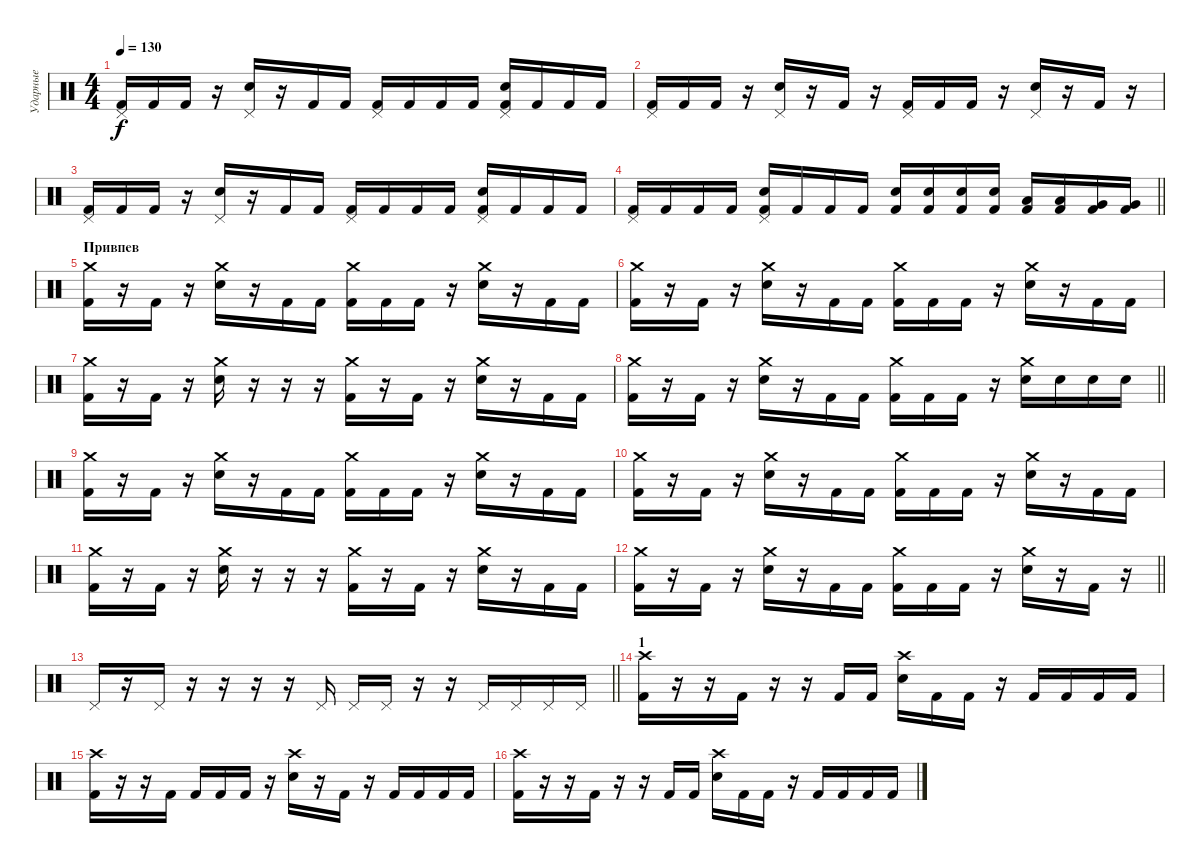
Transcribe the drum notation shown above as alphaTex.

\track ("Ударные" "Ударные") {instrument percussion}
\staff {score}
\articulation defaults
\ts (4 4)
\tempo 130
\clef neutral
\ks c
("Pedal Hi-Hat (hit)" "Kick (hit) 2").16{dy f} "Kick (hit) 2".16 "Kick (hit) 2".16 r.16 ("Pedal Hi-Hat (hit)" "Snare (hit) 2").16 r.16 "Kick (hit) 2".16 "Kick (hit) 2".16 ("Pedal Hi-Hat (hit)" "Kick (hit) 2").16 "Kick (hit) 2".16 "Kick (hit) 2".16 "Kick (hit) 2".16 ("Pedal Hi-Hat (hit)" "Snare (hit) 2" "Kick (hit) 2").16 "Kick (hit) 2".16 "Kick (hit) 2".16 "Kick (hit) 2".16 |
("Pedal Hi-Hat (hit)" "Kick (hit) 2").16 "Kick (hit) 2".16 "Kick (hit) 2".16 r.16 ("Pedal Hi-Hat (hit)" "Snare (hit) 2").16 r.16 "Kick (hit) 2".16 r.16 ("Pedal Hi-Hat (hit)" "Kick (hit) 2").16 "Kick (hit) 2".16 "Kick (hit) 2".16 r.16 ("Pedal Hi-Hat (hit)" "Snare (hit) 2").16 r.16 "Kick (hit) 2".16 r.16 |
("Pedal Hi-Hat (hit)" "Kick (hit) 2").16 "Kick (hit) 2".16 "Kick (hit) 2".16 r.16 ("Pedal Hi-Hat (hit)" "Snare (hit) 2").16 r.16 "Kick (hit) 2".16 "Kick (hit) 2".16 ("Pedal Hi-Hat (hit)" "Kick (hit) 2").16 "Kick (hit) 2".16 "Kick (hit) 2".16 "Kick (hit) 2".16 ("Pedal Hi-Hat (hit)" "Snare (hit) 2" "Kick (hit) 2").16 "Kick (hit) 2".16 "Kick (hit) 2".16 "Kick (hit) 2".16 |
\barLineRight lightlight
("Pedal Hi-Hat (hit)" "Kick (hit) 2").16 "Kick (hit) 2".16 "Kick (hit) 2".16 "Kick (hit) 2".16 ("Pedal Hi-Hat (hit)" "Snare (hit) 2" "Kick (hit) 2").16 "Kick (hit) 2".16 "Kick (hit) 2".16 "Kick (hit) 2".16 ("Snare (hit) 2" "Kick (hit) 2").16 ("Snare (hit) 2" "Kick (hit) 2").16 ("Snare (hit) 2" "Kick (hit) 2").16 ("Snare (hit) 2" "Kick (hit) 2").16 ("Low Floor Tom (hit)" "Kick (hit) 2").16 ("Low Floor Tom (hit)" "Kick (hit) 2").16 ("Very Low Tom (hit)" "Kick (hit) 2").16 ("Very Low Tom (hit)" "Kick (hit) 2").16 |
\section ("" "Привпев")
("Crash medium (hit)" "Kick (hit) 2").16 r.16 "Kick (hit) 2".16 r.16 ("Crash medium (hit)" "Snare (hit) 2").16 r.16 "Kick (hit) 2".16 "Kick (hit) 2".16 ("Crash medium (hit)" "Kick (hit) 2").16 "Kick (hit) 2".16 "Kick (hit) 2".16 r.16 ("Crash medium (hit)" "Snare (hit) 2").16 r.16 "Kick (hit) 2".16 "Kick (hit) 2".16 |
("Crash medium (hit)" "Kick (hit) 2").16 r.16 "Kick (hit) 2".16 r.16 ("Crash medium (hit)" "Snare (hit) 2").16 r.16 "Kick (hit) 2".16 "Kick (hit) 2".16 ("Crash medium (hit)" "Kick (hit) 2").16 "Kick (hit) 2".16 "Kick (hit) 2".16 r.16 ("Crash medium (hit)" "Snare (hit) 2").16 r.16 "Kick (hit) 2".16 "Kick (hit) 2".16 |
("Crash medium (hit)" "Kick (hit) 2").16 r.16 "Kick (hit) 2".16 r.16 ("Crash medium (hit)" "Snare (hit) 2").16 r.16 r.16 r.16 ("Crash medium (hit)" "Kick (hit) 2").16 r.16 "Kick (hit) 2".16 r.16 ("Crash medium (hit)" "Snare (hit) 2").16 r.16 "Kick (hit) 2".16 "Kick (hit) 2".16 |
\barLineRight lightlight
("Crash medium (hit)" "Kick (hit) 2").16 r.16 "Kick (hit) 2".16 r.16 ("Crash medium (hit)" "Snare (hit) 2").16 r.16 "Kick (hit) 2".16 "Kick (hit) 2".16 ("Crash medium (hit)" "Kick (hit) 2").16 "Kick (hit) 2".16 "Kick (hit) 2".16 r.16 ("Crash medium (hit)" "Snare (hit) 2").16 "Snare (hit) 2".16 "Snare (hit) 2".16 "Snare (hit) 2".16 |
("Crash medium (hit)" "Kick (hit) 2").16 r.16 "Kick (hit) 2".16 r.16 ("Crash medium (hit)" "Snare (hit) 2").16 r.16 "Kick (hit) 2".16 "Kick (hit) 2".16 ("Crash medium (hit)" "Kick (hit) 2").16 "Kick (hit) 2".16 "Kick (hit) 2".16 r.16 ("Crash medium (hit)" "Snare (hit) 2").16 r.16 "Kick (hit) 2".16 "Kick (hit) 2".16 |
("Crash medium (hit)" "Kick (hit) 2").16 r.16 "Kick (hit) 2".16 r.16 ("Crash medium (hit)" "Snare (hit) 2").16 r.16 "Kick (hit) 2".16 "Kick (hit) 2".16 ("Crash medium (hit)" "Kick (hit) 2").16 "Kick (hit) 2".16 "Kick (hit) 2".16 r.16 ("Crash medium (hit)" "Snare (hit) 2").16 r.16 "Kick (hit) 2".16 "Kick (hit) 2".16 |
("Crash medium (hit)" "Kick (hit) 2").16 r.16 "Kick (hit) 2".16 r.16 ("Crash medium (hit)" "Snare (hit) 2").16 r.16 r.16 r.16 ("Crash medium (hit)" "Kick (hit) 2").16 r.16 "Kick (hit) 2".16 r.16 ("Crash medium (hit)" "Snare (hit) 2").16 r.16 "Kick (hit) 2".16 "Kick (hit) 2".16 |
\barLineRight lightlight
("Crash medium (hit)" "Kick (hit) 2").16 r.16 "Kick (hit) 2".16 r.16 ("Crash medium (hit)" "Snare (hit) 2").16 r.16 "Kick (hit) 2".16 "Kick (hit) 2".16 ("Crash medium (hit)" "Kick (hit) 2").16 "Kick (hit) 2".16 "Kick (hit) 2".16 r.16 ("Crash medium (hit)" "Snare (hit) 2").16 r.16 "Kick (hit) 2".16 r.16 |
\barLineRight lightlight "Pedal Hi-Hat (hit)".16
r.16 "Pedal Hi-Hat (hit)".16 r.16 r.16 r.16 r.16 "Pedal Hi-Hat (hit)".16 "Pedal Hi-Hat (hit)".16 "Pedal Hi-Hat (hit)".16 r.16 r.16 "Pedal Hi-Hat (hit)".16 "Pedal Hi-Hat (hit)".16 "Pedal Hi-Hat (hit)".16 "Pedal Hi-Hat (hit)".16 |
\section ("" "1")
("Crash high (hit)" "Kick (hit) 2").16 r.16 r.16 "Kick (hit) 2".16 r.16 r.16 "Kick (hit) 2".16 "Kick (hit) 2".16 ("Crash high (hit)" "Snare (hit) 2").16 "Kick (hit) 2".16 "Kick (hit) 2".16 r.16 "Kick (hit) 2".16 "Kick (hit) 2".16 "Kick (hit) 2".16 "Kick (hit) 2".16 |
("Crash high (hit)" "Kick (hit) 2").16 r.16 r.16 "Kick (hit) 2".16 "Kick (hit) 2".16 "Kick (hit) 2".16 "Kick (hit) 2".16 r.16 ("Crash high (hit)" "Snare (hit) 2").16 r.16 "Kick (hit) 2".16 r.16 "Kick (hit) 2".16 "Kick (hit) 2".16 "Kick (hit) 2".16 "Kick (hit) 2".16 |
("Crash high (hit)" "Kick (hit) 2").16 r.16 r.16 "Kick (hit) 2".16 r.16 r.16 "Kick (hit) 2".16 "Kick (hit) 2".16 ("Crash high (hit)" "Snare (hit) 2").16 "Kick (hit) 2".16 "Kick (hit) 2".16 r.16 "Kick (hit) 2".16 "Kick (hit) 2".16 "Kick (hit) 2".16 "Kick (hit) 2".16
